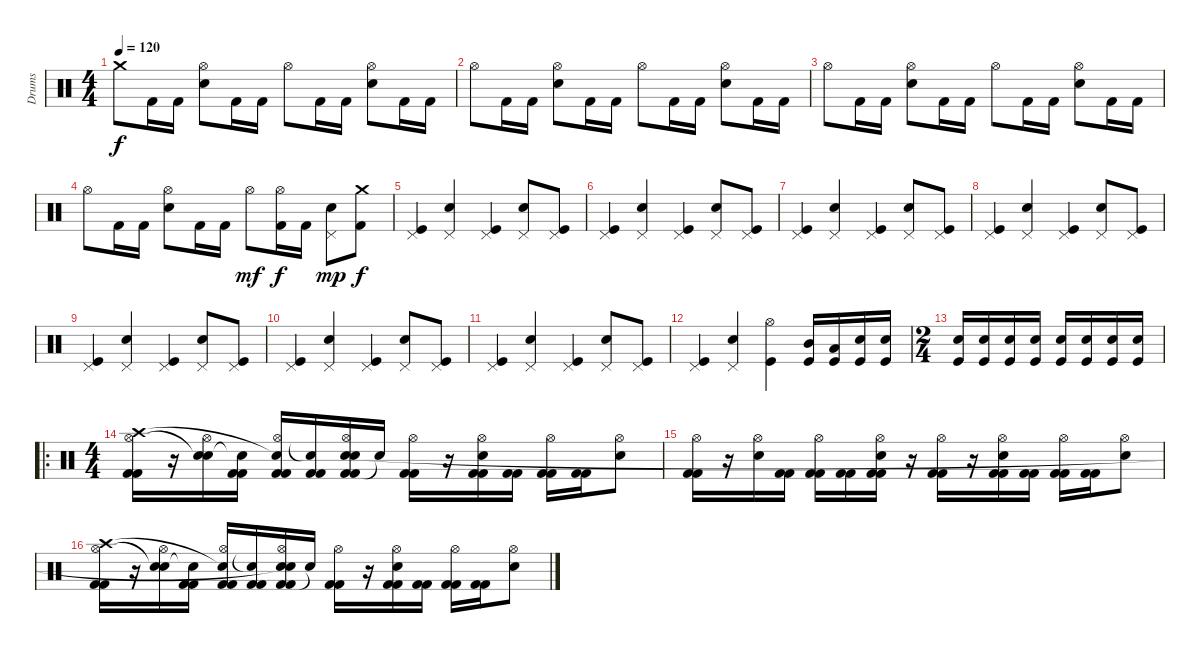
\track ("Drums" "Drums") {instrument percussion}
\staff {score}
\articulation defaults
\ts (4 4)
\tempo 120
\clef neutral
\ks c "Crash medium (hit)".8{dy f} "Kick (hit) 2".16 "Kick (hit) 2".16
("Hi-Hat (open)" "Snare (hit) 2").8 "Kick (hit) 2".16 "Kick (hit) 2".16 "Hi-Hat (open)".8 "Kick (hit) 2".16 "Kick (hit) 2".16 ("Hi-Hat (open)" "Snare (hit) 2").8 "Kick (hit) 2".16 "Kick (hit) 2".16 |
"Hi-Hat (open)".8 "Kick (hit) 2".16 "Kick (hit) 2".16 ("Hi-Hat (open)" "Snare (hit) 2").8 "Kick (hit) 2".16 "Kick (hit) 2".16 "Hi-Hat (open)".8 "Kick (hit) 2".16 "Kick (hit) 2".16 ("Hi-Hat (open)" "Snare (hit) 2").8 "Kick (hit) 2".16 "Kick (hit) 2".16 |
"Hi-Hat (open)".8 "Kick (hit) 2".16 "Kick (hit) 2".16 ("Hi-Hat (open)" "Snare (hit) 2").8 "Kick (hit) 2".16 "Kick (hit) 2".16 "Hi-Hat (open)".8 "Kick (hit) 2".16 "Kick (hit) 2".16 ("Hi-Hat (open)" "Snare (hit) 2").8 "Kick (hit) 2".16 "Kick (hit) 2".16 |
"Hi-Hat (open)".8 "Kick (hit) 2".16 "Kick (hit) 2".16 ("Hi-Hat (open)" "Snare (hit) 2").8 "Kick (hit) 2".16 "Kick (hit) 2".16 "Hi-Hat (open)".8{dy mf} ("Hi-Hat (open)" "Kick (hit) 2").16{dy f} "Kick (hit) 2".16 ("Pedal Hi-Hat (hit)" "Snare (hit) 2").8{dy mp} ("Crash medium (hit)" "Kick (hit) 2").8{dy f} |
("Pedal Hi-Hat (hit)" "Kick (hit)").4 ("Pedal Hi-Hat (hit)" "Electric Snare (hit)").4 ("Pedal Hi-Hat (hit)" "Kick (hit)").4 ("Electric Snare (hit)" "Pedal Hi-Hat (hit)").8 ("Kick (hit)" "Pedal Hi-Hat (hit)").8 |
("Pedal Hi-Hat (hit)" "Kick (hit)").4 ("Pedal Hi-Hat (hit)" "Electric Snare (hit)").4 ("Pedal Hi-Hat (hit)" "Kick (hit)").4 ("Electric Snare (hit)" "Pedal Hi-Hat (hit)").8 ("Kick (hit)" "Pedal Hi-Hat (hit)").8 |
("Pedal Hi-Hat (hit)" "Kick (hit)").4 ("Pedal Hi-Hat (hit)" "Electric Snare (hit)").4 ("Pedal Hi-Hat (hit)" "Kick (hit)").4 ("Electric Snare (hit)" "Pedal Hi-Hat (hit)").8 ("Kick (hit)" "Pedal Hi-Hat (hit)").8 |
("Pedal Hi-Hat (hit)" "Kick (hit)").4 ("Pedal Hi-Hat (hit)" "Electric Snare (hit)").4 ("Pedal Hi-Hat (hit)" "Kick (hit)").4 ("Electric Snare (hit)" "Pedal Hi-Hat (hit)").8 ("Kick (hit)" "Pedal Hi-Hat (hit)").8 |
("Pedal Hi-Hat (hit)" "Kick (hit)").4 ("Pedal Hi-Hat (hit)" "Electric Snare (hit)").4 ("Pedal Hi-Hat (hit)" "Kick (hit)").4 ("Electric Snare (hit)" "Pedal Hi-Hat (hit)").8 ("Kick (hit)" "Pedal Hi-Hat (hit)").8 |
("Pedal Hi-Hat (hit)" "Kick (hit)").4 ("Pedal Hi-Hat (hit)" "Electric Snare (hit)").4 ("Pedal Hi-Hat (hit)" "Kick (hit)").4 ("Electric Snare (hit)" "Pedal Hi-Hat (hit)").8 ("Kick (hit)" "Pedal Hi-Hat (hit)").8 |
("Pedal Hi-Hat (hit)" "Kick (hit)").4 ("Pedal Hi-Hat (hit)" "Electric Snare (hit)").4 ("Pedal Hi-Hat (hit)" "Kick (hit)").4 ("Electric Snare (hit)" "Pedal Hi-Hat (hit)").8 ("Kick (hit)" "Pedal Hi-Hat (hit)").8 |
("Pedal Hi-Hat (hit)" "Kick (hit)").4 ("Pedal Hi-Hat (hit)" "Electric Snare (hit)").4 ("Hi-Hat (open)" "Kick (hit)").4 ("Mid Tom (hit)" "Kick (hit)").16 ("Low Tom (hit)" "Kick (hit)").16 ("Electric Snare (hit)" "Kick (hit)").16 ("Electric Snare (hit)" "Kick (hit)").16 |
\ts (2 4)
("Electric Snare (hit)" "Kick (hit)").16 ("Electric Snare (hit)" "Kick (hit)").16 ("Electric Snare (hit)" "Kick (hit)").16 ("Electric Snare (hit)" "Kick (hit)").16 ("Electric Snare (hit)" "Kick (hit)").16 ("Electric Snare (hit)" "Kick (hit)").16 ("Electric Snare (hit)" "Kick (hit)").16 ("Electric Snare (hit)" "Kick (hit)").16 |
\ro
\ts (4 4)
("Kick (hit) 2" "Kick (hit) 2" "Hi-Hat (open)" "Crash high (hit)").16 r.16 ("Electric Snare (hit)" "Hi-Hat (open)" "Snare (hit)"{t}).16 ("Kick (hit) 2" "Kick (hit) 2" "Snare (hit)"{t}).16 ("Kick (hit) 2" "Kick (hit) 2" "Hi-Hat (open)" "Snare (hit)"{t}).16 ("Kick (hit) 2" "Kick (hit) 2" "Snare (hit)"{t}).16 ("Kick (hit) 2" "Kick (hit) 2" "Electric Snare (hit)" "Hi-Hat (open)" "Snare (hit)").16 "Snare (hit)"{t}.16 ("Kick (hit) 2" "Kick (hit) 2" "Hi-Hat (open)").16 r.16 ("Kick (hit) 2" "Kick (hit) 2" "Electric Snare (hit)" "Hi-Hat (open)").16 ("Kick (hit) 2" "Kick (hit) 2").16 ("Kick (hit) 2" "Kick (hit) 2" "Hi-Hat (open)").16 ("Kick (hit) 2" "Kick (hit) 2").16 ("Electric Snare (hit)" "Hi-Hat (open)").8 |
("Kick (hit) 2" "Kick (hit) 2" "Hi-Hat (open)").16 r.16 ("Electric Snare (hit)" "Hi-Hat (open)").16 ("Kick (hit) 2" "Kick (hit) 2").16 ("Kick (hit) 2" "Kick (hit) 2" "Hi-Hat (open)").16 ("Kick (hit) 2" "Kick (hit) 2").16 ("Kick (hit) 2" "Kick (hit) 2" "Electric Snare (hit)" "Hi-Hat (open)").16 r.16 ("Kick (hit) 2" "Kick (hit) 2" "Hi-Hat (open)").16 r.16 ("Kick (hit) 2" "Kick (hit) 2" "Electric Snare (hit)" "Hi-Hat (open)").16 ("Kick (hit) 2" "Kick (hit) 2").16 ("Kick (hit) 2" "Kick (hit) 2" "Hi-Hat (open)").16 ("Kick (hit) 2" "Kick (hit) 2").16 ("Electric Snare (hit)" "Hi-Hat (open)").8 |
("Kick (hit) 2" "Kick (hit) 2" "Hi-Hat (open)" "Crash high (hit)").16 r.16 ("Electric Snare (hit)" "Hi-Hat (open)" "Snare (hit)"{t}).16 ("Kick (hit) 2" "Kick (hit) 2" "Snare (hit)"{t}).16 ("Kick (hit) 2" "Kick (hit) 2" "Hi-Hat (open)" "Snare (hit)"{t}).16 ("Kick (hit) 2" "Kick (hit) 2" "Snare (hit)"{t}).16 ("Kick (hit) 2" "Kick (hit) 2" "Electric Snare (hit)" "Hi-Hat (open)" "Snare (hit)"{t}).16 "Snare (hit)"{t}.16 ("Kick (hit) 2" "Kick (hit) 2" "Hi-Hat (open)").16 r.16 ("Kick (hit) 2" "Kick (hit) 2" "Electric Snare (hit)" "Hi-Hat (open)").16 ("Kick (hit) 2" "Kick (hit) 2").16 ("Kick (hit) 2" "Kick (hit) 2" "Hi-Hat (open)").16 ("Kick (hit) 2" "Kick (hit) 2").16 ("Electric Snare (hit)" "Hi-Hat (open)").8
